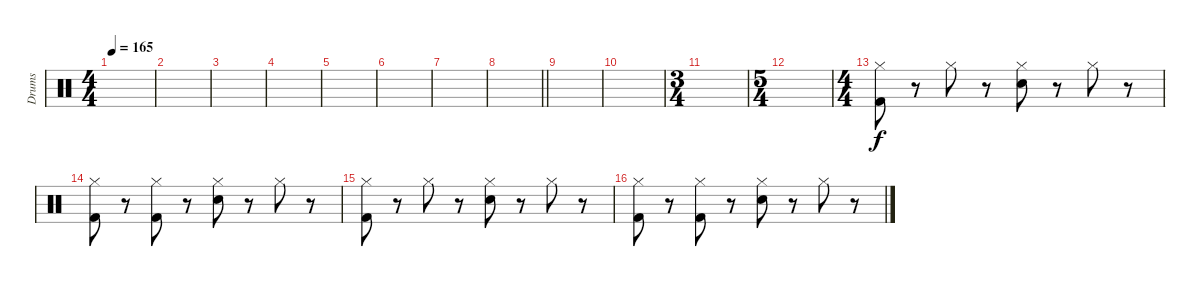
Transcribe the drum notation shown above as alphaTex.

\track ("Drums" "Drums") {instrument percussion}
\staff {score}
\articulation defaults
\ts (4 4)
\tempo 165
\clef neutral
\ks c
|
|
|
|
|
|
|
\barLineRight lightlight
|
|
|
\ts (3 4)
|
\ts (5 4)
|
\ts (4 4)
("Hi-Hat (closed)" "Kick (hit) 2").8 r.8 "Hi-Hat (closed)".8 r.8 ("Hi-Hat (closed)" "Electric Snare (hit)").8 r.8 "Hi-Hat (closed)".8 r.8 |
("Hi-Hat (closed)" "Kick (hit) 2").8 r.8 ("Hi-Hat (closed)" "Kick (hit) 2").8 r.8 ("Hi-Hat (closed)" "Electric Snare (hit)").8 r.8 "Hi-Hat (closed)".8 r.8 |
("Hi-Hat (closed)" "Kick (hit) 2").8 r.8 "Hi-Hat (closed)".8 r.8 ("Hi-Hat (closed)" "Electric Snare (hit)").8 r.8 "Hi-Hat (closed)".8 r.8 |
("Hi-Hat (closed)" "Kick (hit) 2").8 r.8 ("Hi-Hat (closed)" "Kick (hit) 2").8 r.8 ("Hi-Hat (closed)" "Electric Snare (hit)").8 r.8 "Hi-Hat (closed)".8 r.8
